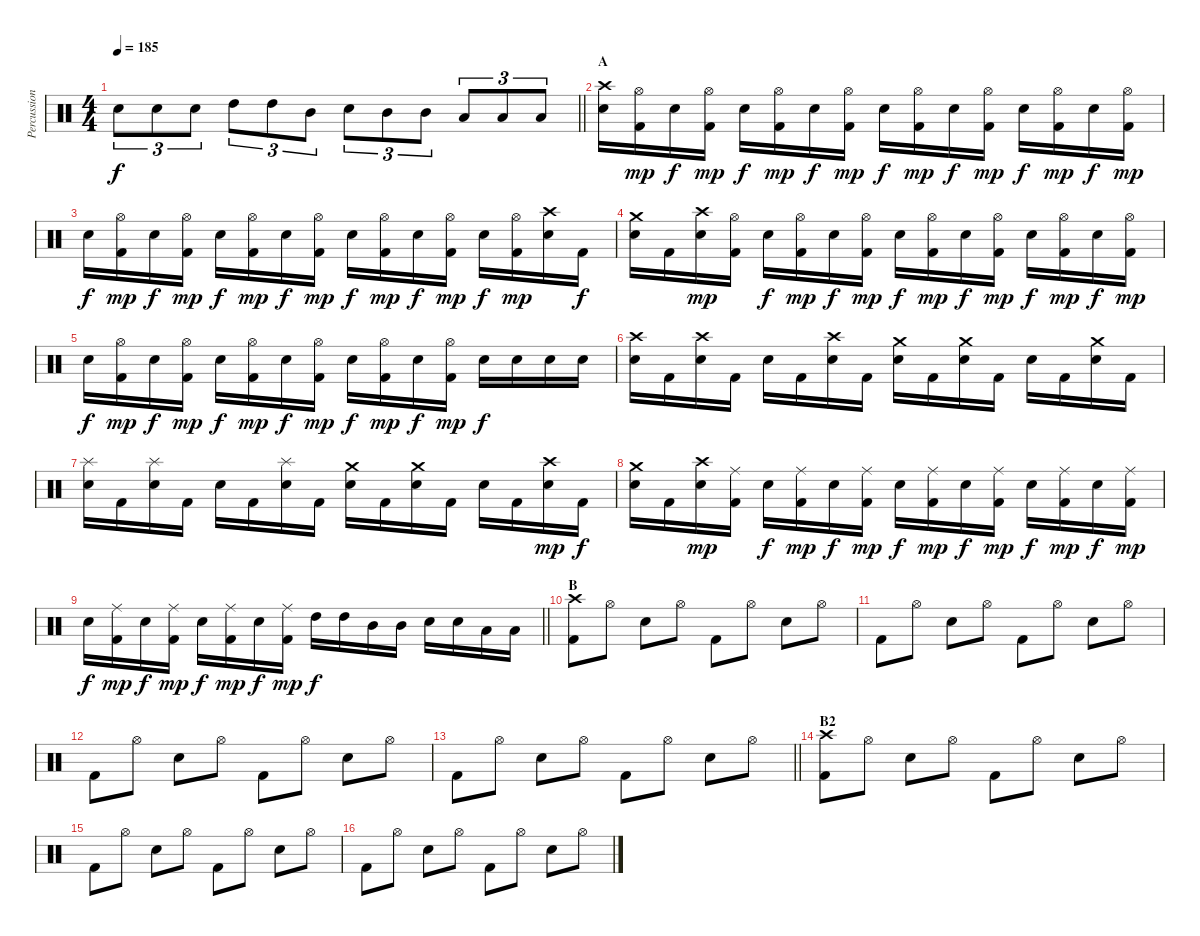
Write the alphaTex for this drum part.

\track ("Percussion" "Percussion") {instrument percussion}
\staff {score}
\articulation defaults
\ts (4 4)
\tempo 185
\clef neutral
\barLineRight lightlight
\ks c "Snare (hit) 2".8{tu (3 2) dy f} "Snare (hit) 2".8{tu (3 2)} "Snare (hit) 2".8{tu (3 2)} "High Tom (hit)".8{tu (3 2)} "High Tom (hit)".8{tu (3 2)} "Mid Tom (hit)".8{tu (3 2)} "Snare (hit) 2".8{tu (3 2)} "Mid Tom (hit)".8{tu (3 2)} "Mid Tom (hit)".8{tu (3 2)} "Low Tom (hit)".8{tu (3 2)} "Low Tom (hit)".8{tu (3 2)} "Low Tom (hit)".8{tu (3 2)}
|
\section ("" "A")
("Crash high (hit)" "Snare (hit) 2").16 ("Hi-Hat (open)" "Kick (hit) 2").16{dy mp} "Snare (hit) 2".16{dy f} ("Hi-Hat (open)" "Kick (hit) 2").16{dy mp} "Snare (hit) 2".16{dy f} ("Hi-Hat (open)" "Kick (hit) 2").16{dy mp} "Snare (hit) 2".16{dy f} ("Hi-Hat (open)" "Kick (hit) 2").16{dy mp} "Snare (hit) 2".16{dy f} ("Hi-Hat (open)" "Kick (hit) 2").16{dy mp} "Snare (hit) 2".16{dy f} ("Hi-Hat (open)" "Kick (hit) 2").16{dy mp} "Snare (hit) 2".16{dy f} ("Hi-Hat (open)" "Kick (hit) 2").16{dy mp} "Snare (hit) 2".16{dy f} ("Hi-Hat (open)" "Kick (hit) 2").16{dy mp} |
"Snare (hit) 2".16{dy f} ("Hi-Hat (open)" "Kick (hit) 2").16{dy mp} "Snare (hit) 2".16{dy f} ("Hi-Hat (open)" "Kick (hit) 2").16{dy mp} "Snare (hit) 2".16{dy f} ("Hi-Hat (open)" "Kick (hit) 2").16{dy mp} "Snare (hit) 2".16{dy f} ("Hi-Hat (open)" "Kick (hit) 2").16{dy mp} "Snare (hit) 2".16{dy f} ("Hi-Hat (open)" "Kick (hit) 2").16{dy mp} "Snare (hit) 2".16{dy f} ("Hi-Hat (open)" "Kick (hit) 2").16{dy mp} "Snare (hit) 2".16{dy f} ("Hi-Hat (open)" "Kick (hit) 2").16{dy mp} ("Crash high (hit)" "Snare (hit) 2").16 "Kick (hit) 2".16{dy f} |
("Crash medium (hit)" "Snare (hit) 2").16 "Kick (hit) 2".16 ("Crash high (hit)" "Snare (hit) 2").16{dy mp} ("Hi-Hat (open)" "Kick (hit) 2").16 "Snare (hit) 2".16{dy f} ("Hi-Hat (open)" "Kick (hit) 2").16{dy mp} "Snare (hit) 2".16{dy f} ("Hi-Hat (open)" "Kick (hit) 2").16{dy mp} "Snare (hit) 2".16{dy f} ("Hi-Hat (open)" "Kick (hit) 2").16{dy mp} "Snare (hit) 2".16{dy f} ("Hi-Hat (open)" "Kick (hit) 2").16{dy mp} "Snare (hit) 2".16{dy f} ("Hi-Hat (open)" "Kick (hit) 2").16{dy mp} "Snare (hit) 2".16{dy f} ("Hi-Hat (open)" "Kick (hit) 2").16{dy mp} |
"Snare (hit) 2".16{dy f} ("Hi-Hat (open)" "Kick (hit) 2").16{dy mp} "Snare (hit) 2".16{dy f} ("Hi-Hat (open)" "Kick (hit) 2").16{dy mp} "Snare (hit) 2".16{dy f} ("Hi-Hat (open)" "Kick (hit) 2").16{dy mp} "Snare (hit) 2".16{dy f} ("Hi-Hat (open)" "Kick (hit) 2").16{dy mp} "Snare (hit) 2".16{dy f} ("Hi-Hat (open)" "Kick (hit) 2").16{dy mp} "Snare (hit) 2".16{dy f} ("Hi-Hat (open)" "Kick (hit) 2").16{dy mp} "Snare (hit) 2".16{dy f} "Snare (hit) 2".16 "Snare (hit) 2".16 "Snare (hit) 2".16 |
("Crash high (hit)" "Snare (hit) 2").16 "Kick (hit) 2".16 ("Crash high (hit)" "Snare (hit) 2").16 "Kick (hit) 2".16 "Snare (hit) 2".16 "Kick (hit) 2".16 ("Crash high (hit)" "Snare (hit) 2").16 "Kick (hit) 2".16 ("Crash medium (hit)" "Snare (hit) 2").16 "Kick (hit) 2".16 ("Crash medium (hit)" "Snare (hit) 2").16 "Kick (hit) 2".16 "Snare (hit) 2".16 "Kick (hit) 2".16 ("Crash medium (hit)" "Snare (hit) 2").16 "Kick (hit) 2".16 |
("Splash (hit)" "Snare (hit) 2").16 "Kick (hit) 2".16 ("Splash (hit)" "Snare (hit) 2").16 "Kick (hit) 2".16 "Snare (hit) 2".16 "Kick (hit) 2".16 ("Splash (hit)" "Snare (hit) 2").16 "Kick (hit) 2".16 ("Crash medium (hit)" "Snare (hit) 2").16 "Kick (hit) 2".16 ("Crash medium (hit)" "Snare (hit) 2").16 "Kick (hit) 2".16 "Snare (hit) 2".16 "Kick (hit) 2".16 ("Crash high (hit)" "Snare (hit) 2").16{dy mp} "Kick (hit) 2".16{dy f} |
("Crash medium (hit)" "Snare (hit) 2").16 "Kick (hit) 2".16 ("Crash high (hit)" "Snare (hit) 2").16{dy mp} ("Ride (middle)" "Kick (hit) 2").16 "Snare (hit) 2".16{dy f} ("Ride (middle)" "Kick (hit) 2").16{dy mp} "Snare (hit) 2".16{dy f} ("Ride (middle)" "Kick (hit) 2").16{dy mp} "Snare (hit) 2".16{dy f} ("Ride (middle)" "Kick (hit) 2").16{dy mp} "Snare (hit) 2".16{dy f} ("Ride (middle)" "Kick (hit) 2").16{dy mp} "Snare (hit) 2".16{dy f} ("Ride (middle)" "Kick (hit) 2").16{dy mp} "Snare (hit) 2".16{dy f} ("Ride (middle)" "Kick (hit) 2").16{dy mp} |
\barLineRight lightlight "Snare (hit) 2".16{dy f}
("Ride (middle)" "Kick (hit) 2").16{dy mp} "Snare (hit) 2".16{dy f} ("Ride (middle)" "Kick (hit) 2").16{dy mp} "Snare (hit) 2".16{dy f} ("Ride (middle)" "Kick (hit) 2").16{dy mp} "Snare (hit) 2".16{dy f} ("Ride (middle)" "Kick (hit) 2").16{dy mp} "High Tom (hit)".16{dy f} "High Tom (hit)".16 "Mid Tom (hit)".16 "Mid Tom (hit)".16 "Snare (hit) 2".16 "Snare (hit) 2".16 "Low Tom (hit)".16 "Low Tom (hit)".16 |
\section ("" "B")
("Crash high (hit)" "Kick (hit) 2").8 "Hi-Hat (open)".8 "Snare (hit) 2".8 "Hi-Hat (open)".8 "Kick (hit) 2".8 "Hi-Hat (open)".8 "Snare (hit) 2".8 "Hi-Hat (open)".8 |
"Kick (hit) 2".8 "Hi-Hat (open)".8 "Snare (hit) 2".8 "Hi-Hat (open)".8 "Kick (hit) 2".8 "Hi-Hat (open)".8 "Snare (hit) 2".8 "Hi-Hat (open)".8 |
"Kick (hit) 2".8 "Hi-Hat (open)".8 "Snare (hit) 2".8 "Hi-Hat (open)".8 "Kick (hit) 2".8 "Hi-Hat (open)".8 "Snare (hit) 2".8 "Hi-Hat (open)".8 |
\barLineRight lightlight "Kick (hit) 2".8 "Hi-Hat (open)".8 "Snare (hit) 2".8 "Hi-Hat (open)".8 "Kick (hit) 2".8 "Hi-Hat (open)".8 "Snare (hit) 2".8 "Hi-Hat (open)".8
|
\section ("" "B2")
("Crash high (hit)" "Kick (hit) 2").8 "Hi-Hat (open)".8 "Snare (hit) 2".8 "Hi-Hat (open)".8 "Kick (hit) 2".8 "Hi-Hat (open)".8 "Snare (hit) 2".8 "Hi-Hat (open)".8 |
"Kick (hit) 2".8 "Hi-Hat (open)".8 "Snare (hit) 2".8 "Hi-Hat (open)".8 "Kick (hit) 2".8 "Hi-Hat (open)".8 "Snare (hit) 2".8 "Hi-Hat (open)".8 |
"Kick (hit) 2".8 "Hi-Hat (open)".8 "Snare (hit) 2".8 "Hi-Hat (open)".8 "Kick (hit) 2".8 "Hi-Hat (open)".8 "Snare (hit) 2".8 "Hi-Hat (open)".8
